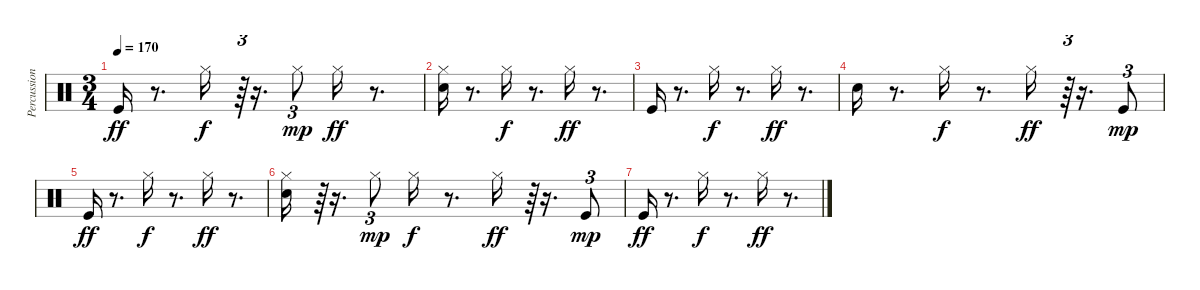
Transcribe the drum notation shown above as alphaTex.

\track ("Percussion" "Percussion") {instrument percussion}
\staff {score}
\articulation defaults
\ts (3 4)
\tempo 170
\clef neutral
\ks c "Kick (hit)".16{dy ff}
r.8{d} "Hi-Hat (closed)".16{dy f} r.64{tu (3 2)} r.16{d} "Hi-Hat (closed)".8{tu (3 2) dy mp} "Hi-Hat (closed)".16{dy ff} r.8{d} |
("Snare (hit) 2" "Hi-Hat (closed)").16 r.8{d} "Hi-Hat (closed)".16{dy f} r.8{d} "Hi-Hat (closed)".16{dy ff} r.8{d} |
"Kick (hit)".16 r.8{d} "Hi-Hat (closed)".16{dy f} r.8{d} "Hi-Hat (closed)".16{dy ff} r.8{d} |
"Snare (hit) 2".16 r.8{d} "Hi-Hat (closed)".16{dy f} r.8{d} "Hi-Hat (closed)".16{dy ff} r.64{tu (3 2)} r.16{d} "Kick (hit)".8{tu (3 2) dy mp} |
"Kick (hit)".16{dy ff} r.8{d} "Hi-Hat (closed)".16{dy f} r.8{d} "Hi-Hat (closed)".16{dy ff} r.8{d} |
("Snare (hit) 2" "Hi-Hat (closed)").16 r.64{tu (3 2)} r.16{d} "Hi-Hat (closed)".8{tu (3 2) dy mp} "Hi-Hat (closed)".16{dy f} r.8{d} "Hi-Hat (closed)".16{dy ff} r.64{tu (3 2)} r.16{d} "Kick (hit)".8{tu (3 2) dy mp} |
"Kick (hit)".16{dy ff} r.8{d} "Hi-Hat (closed)".16{dy f} r.8{d} "Hi-Hat (closed)".16{dy ff} r.8{d}
